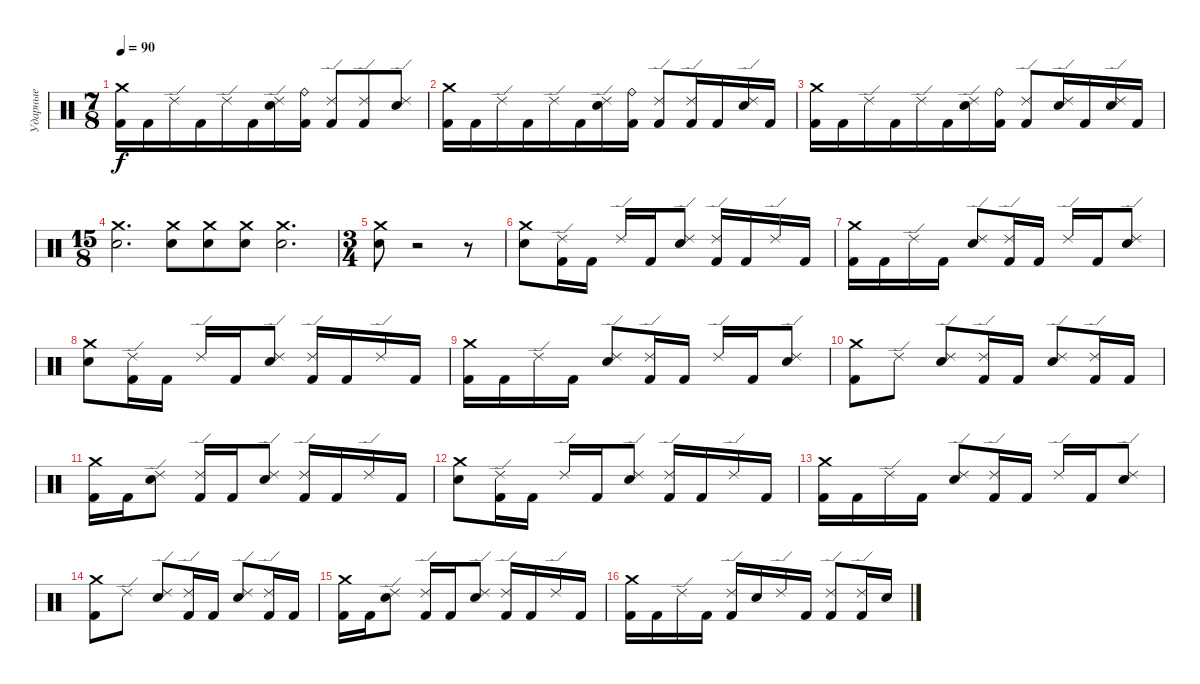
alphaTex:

\track ("Ударные" "Ударные") {instrument percussion}
\staff {score}
\articulation defaults
\ts (7 8)
\tempo 90
\clef neutral
\ks c
("Crash medium (hit)" "Kick (hit) 2").16{dy f} "Kick (hit) 2".16 "Ride (edge) 2".16 "Kick (hit) 2".16 "Ride (edge) 2".16 "Kick (hit) 2".16 ("Ride (edge) 2" "Electric Snare (hit)").16 ("Kick (hit) 2" "Ride (bell)").16 ("Ride (edge) 2" "Kick (hit) 2").8 ("Ride (edge) 2" "Kick (hit) 2").8 ("Ride (edge) 2" "Electric Snare (hit)").8 |
("Crash medium (hit)" "Kick (hit) 2").16 "Kick (hit) 2".16 "Ride (edge) 2".16 "Kick (hit) 2".16 "Ride (edge) 2".16 "Kick (hit) 2".16 ("Ride (edge) 2" "Electric Snare (hit)").16 ("Kick (hit) 2" "Ride (bell)").16 ("Ride (edge) 2" "Kick (hit) 2").8 ("Ride (edge) 2" "Kick (hit) 2").16 "Kick (hit) 2".16 ("Ride (edge) 2" "Electric Snare (hit)").16 "Kick (hit) 2".16 |
("Crash medium (hit)" "Kick (hit) 2").16 "Kick (hit) 2".16 "Ride (edge) 2".16 "Kick (hit) 2".16 "Ride (edge) 2".16 "Kick (hit) 2".16 ("Ride (edge) 2" "Electric Snare (hit)").16 ("Kick (hit) 2" "Ride (bell)").16 ("Ride (edge) 2" "Kick (hit) 2").8 ("Ride (edge) 2" "Electric Snare (hit)").16 "Kick (hit) 2".16 ("Electric Snare (hit)" "Ride (edge) 2").16 "Kick (hit) 2".16 |
\ts (15 8)
("Crash medium (hit)" "Electric Snare (hit)").2{d} ("Crash medium (hit)" "Electric Snare (hit)").8 ("Crash medium (hit)" "Electric Snare (hit)").8 ("Crash medium (hit)" "Electric Snare (hit)").8 ("Crash medium (hit)" "Electric Snare (hit)").2{d} |
\ts (3 4)
("Electric Snare (hit)" "Crash medium (hit)").8 r.2 r.8 |
("Crash medium (hit)" "Electric Snare (hit)").8 ("Ride (edge) 2" "Kick (hit) 2").16 "Kick (hit) 2".16 "Ride (edge) 2".16 "Kick (hit) 2".16 ("Ride (edge) 2" "Electric Snare (hit)").8 ("Ride (edge) 2" "Kick (hit) 2").16 "Kick (hit) 2".16 "Ride (edge) 2".16 "Kick (hit) 2".16 |
("Crash medium (hit)" "Kick (hit) 2").16 "Kick (hit) 2".16 "Ride (edge) 2".16 "Kick (hit) 2".16 ("Ride (edge) 2" "Electric Snare (hit)").8 ("Ride (edge) 2" "Kick (hit) 2").16 "Kick (hit) 2".16 "Ride (edge) 2".16 "Kick (hit) 2".16 ("Ride (edge) 2" "Electric Snare (hit)").8 |
("Crash medium (hit)" "Electric Snare (hit)").8 ("Ride (edge) 2" "Kick (hit) 2").16 "Kick (hit) 2".16 "Ride (edge) 2".16 "Kick (hit) 2".16 ("Ride (edge) 2" "Electric Snare (hit)").8 ("Ride (edge) 2" "Kick (hit) 2").16 "Kick (hit) 2".16 "Ride (edge) 2".16 "Kick (hit) 2".16 |
("Crash medium (hit)" "Kick (hit) 2").16 "Kick (hit) 2".16 "Ride (edge) 2".16 "Kick (hit) 2".16 ("Ride (edge) 2" "Electric Snare (hit)").8 ("Ride (edge) 2" "Kick (hit) 2").16 "Kick (hit) 2".16 "Ride (edge) 2".16 "Kick (hit) 2".16 ("Ride (edge) 2" "Electric Snare (hit)").8 |
("Crash medium (hit)" "Kick (hit) 2").8 "Ride (edge) 2".8 ("Ride (edge) 2" "Electric Snare (hit)").8 ("Ride (edge) 2" "Kick (hit) 2").16 "Kick (hit) 2".16 ("Ride (edge) 2" "Electric Snare (hit)").8 ("Ride (edge) 2" "Kick (hit) 2").16 "Kick (hit) 2".16 |
("Crash medium (hit)" "Kick (hit) 2").16 "Kick (hit) 2".16 ("Ride (edge) 2" "Electric Snare (hit)").8 ("Ride (edge) 2" "Kick (hit) 2").16 "Kick (hit) 2".16 ("Ride (edge) 2" "Electric Snare (hit)").8 ("Ride (edge) 2" "Kick (hit) 2").16 "Kick (hit) 2".16 "Ride (edge) 2".16 "Kick (hit) 2".16 |
("Crash medium (hit)" "Electric Snare (hit)").8 ("Ride (edge) 2" "Kick (hit) 2").16 "Kick (hit) 2".16 "Ride (edge) 2".16 "Kick (hit) 2".16 ("Ride (edge) 2" "Electric Snare (hit)").8 ("Ride (edge) 2" "Kick (hit) 2").16 "Kick (hit) 2".16 "Ride (edge) 2".16 "Kick (hit) 2".16 |
("Crash medium (hit)" "Kick (hit) 2").16 "Kick (hit) 2".16 "Ride (edge) 2".16 "Kick (hit) 2".16 ("Ride (edge) 2" "Electric Snare (hit)").8 ("Ride (edge) 2" "Kick (hit) 2").16 "Kick (hit) 2".16 "Ride (edge) 2".16 "Kick (hit) 2".16 ("Ride (edge) 2" "Electric Snare (hit)").8 |
("Crash medium (hit)" "Kick (hit) 2").8 "Ride (edge) 2".8 ("Ride (edge) 2" "Electric Snare (hit)").8 ("Ride (edge) 2" "Kick (hit) 2").16 "Kick (hit) 2".16 ("Ride (edge) 2" "Electric Snare (hit)").8 ("Ride (edge) 2" "Kick (hit) 2").16 "Kick (hit) 2".16 |
("Crash medium (hit)" "Kick (hit) 2").16 "Kick (hit) 2".16 ("Ride (edge) 2" "Electric Snare (hit)").8 ("Ride (edge) 2" "Kick (hit) 2").16 "Kick (hit) 2".16 ("Ride (edge) 2" "Electric Snare (hit)").8 ("Ride (edge) 2" "Kick (hit) 2").16 "Kick (hit) 2".16 "Ride (edge) 2".16 "Kick (hit) 2".16 |
("Crash medium (hit)" "Kick (hit) 2").16 "Kick (hit) 2".16 "Ride (edge) 2".16 "Kick (hit) 2".16 ("Ride (edge) 2" "Kick (hit) 2").16 "Electric Snare (hit)".16 "Ride (edge) 2".16 "Kick (hit) 2".16 ("Ride (edge) 2" "Kick (hit) 2").8 ("Ride (edge) 2" "Kick (hit) 2").16 "Electric Snare (hit)".16
